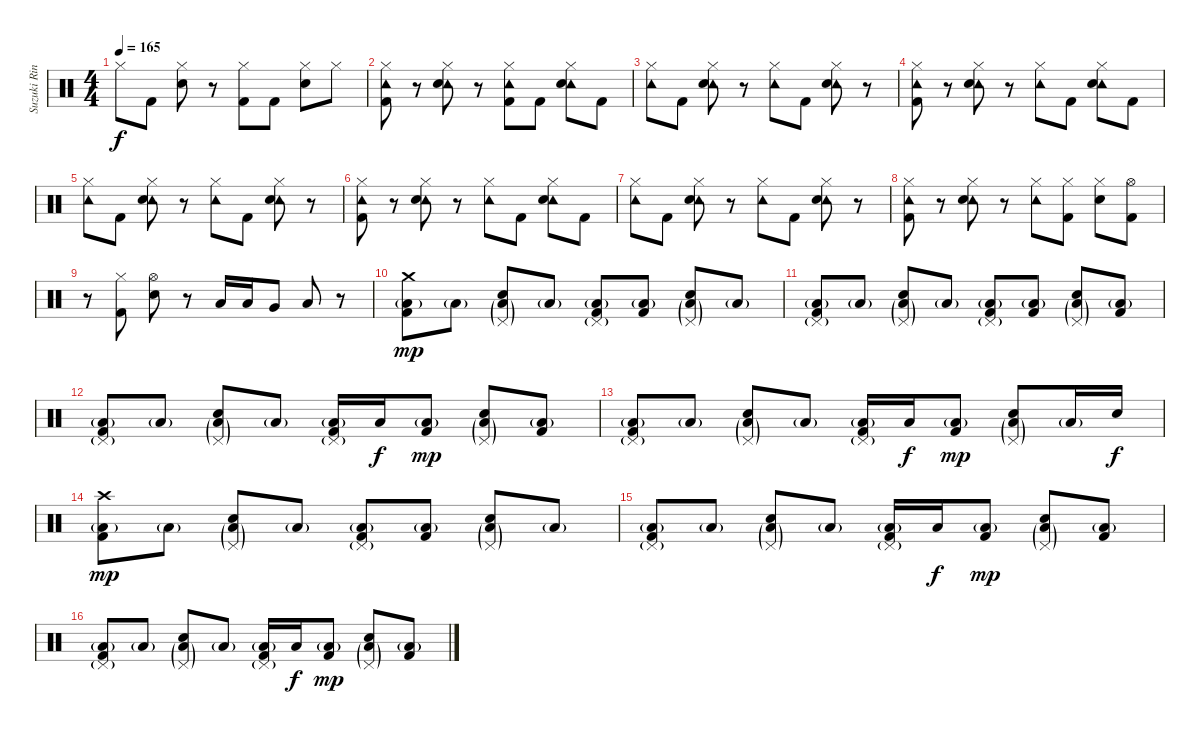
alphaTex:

\track ("Suzuki Rina" "Suzuki Rin") {instrument percussion}
\staff {score}
\articulation defaults
\ts (4 4)
\tempo 165
\clef neutral
\ks c "Hi-Hat (closed)".8{dy f} "Kick (hit) 2".8
("Hi-Hat (closed)" "Electric Snare (hit)").8 r.8 ("Hi-Hat (closed)" "Kick (hit) 2").8 "Kick (hit) 2".8 ("Hi-Hat (closed)" "Electric Snare (hit)").8 "Hi-Hat (closed)".8 |
("Tambourine (hit)" "Hi-Hat (closed)" "Kick (hit) 2").8 r.8 ("Tambourine (hit)" "Hi-Hat (closed)" "Electric Snare (hit)").8 r.8 ("Tambourine (hit)" "Hi-Hat (closed)" "Kick (hit) 2").8 "Kick (hit) 2".8 ("Tambourine (hit)" "Hi-Hat (closed)" "Electric Snare (hit)").8 "Kick (hit) 2".8 |
("Tambourine (hit)" "Hi-Hat (closed)").8 "Kick (hit) 2".8 ("Tambourine (hit)" "Hi-Hat (closed)" "Electric Snare (hit)").8 r.8 ("Tambourine (hit)" "Hi-Hat (closed)").8 "Kick (hit) 2".8 ("Tambourine (hit)" "Hi-Hat (closed)" "Electric Snare (hit)").8 r.8 |
("Tambourine (hit)" "Hi-Hat (closed)" "Kick (hit) 2").8 r.8 ("Tambourine (hit)" "Hi-Hat (closed)" "Electric Snare (hit)").8 r.8 ("Tambourine (hit)" "Hi-Hat (closed)").8 "Kick (hit) 2".8 ("Tambourine (hit)" "Hi-Hat (closed)" "Electric Snare (hit)").8 "Kick (hit) 2".8 |
("Tambourine (hit)" "Hi-Hat (closed)").8 "Kick (hit) 2".8 ("Tambourine (hit)" "Hi-Hat (closed)" "Electric Snare (hit)").8 r.8 ("Tambourine (hit)" "Hi-Hat (closed)").8 "Kick (hit) 2".8 ("Tambourine (hit)" "Hi-Hat (closed)" "Electric Snare (hit)").8 r.8 |
("Tambourine (hit)" "Hi-Hat (closed)" "Kick (hit) 2").8 r.8 ("Tambourine (hit)" "Hi-Hat (closed)" "Electric Snare (hit)").8 r.8 ("Tambourine (hit)" "Hi-Hat (closed)").8 "Kick (hit) 2".8 ("Tambourine (hit)" "Hi-Hat (closed)" "Electric Snare (hit)").8 "Kick (hit) 2".8 |
("Tambourine (hit)" "Hi-Hat (closed)").8 "Kick (hit) 2".8 ("Tambourine (hit)" "Hi-Hat (closed)" "Electric Snare (hit)").8 r.8 ("Tambourine (hit)" "Hi-Hat (closed)").8 "Kick (hit) 2".8 ("Tambourine (hit)" "Hi-Hat (closed)" "Electric Snare (hit)").8 r.8 |
("Tambourine (hit)" "Hi-Hat (closed)" "Kick (hit) 2").8 r.8 ("Tambourine (hit)" "Hi-Hat (closed)" "Electric Snare (hit)").8 r.8 ("Tambourine (hit)" "Hi-Hat (closed)").8 ("Hi-Hat (closed)" "Kick (hit) 2").8 ("Hi-Hat (closed)" "Electric Snare (hit)").8 ("Hi-Hat (open)" "Kick (hit) 2").8 |
r.8 ("Hi-Hat (closed)" "Kick (hit) 2").8 ("Hi-Hat (open)" "Electric Snare (hit)").8 r.8 "Low Tom (hit)".16 "Low Tom (hit)".16 "Very Low Tom (hit)".8 "Low Floor Tom (hit)".8 r.8 |
("Crash medium (hit)" "Low Floor Tom (hit)"{g} "Kick (hit) 2").8{dy mp} "Low Floor Tom (hit)"{g}.8 ("Pedal Hi-Hat (hit)"{g} "Electric Snare (hit)" "Low Floor Tom (hit)"{g}).8 "Low Floor Tom (hit)"{g}.8 ("Pedal Hi-Hat (hit)"{g} "Low Floor Tom (hit)"{g} "Kick (hit) 2").8 ("Low Floor Tom (hit)"{g} "Kick (hit) 2").8 ("Pedal Hi-Hat (hit)"{g} "Electric Snare (hit)" "Low Floor Tom (hit)"{g}).8 "Low Floor Tom (hit)"{g}.8 |
("Pedal Hi-Hat (hit)"{g} "Low Floor Tom (hit)"{g} "Kick (hit) 2").8 "Low Floor Tom (hit)"{g}.8 ("Pedal Hi-Hat (hit)"{g} "Electric Snare (hit)" "Low Floor Tom (hit)"{g}).8 "Low Floor Tom (hit)"{g}.8 ("Pedal Hi-Hat (hit)"{g} "Low Floor Tom (hit)"{g} "Kick (hit) 2").8 ("Low Floor Tom (hit)"{g} "Kick (hit) 2").8 ("Pedal Hi-Hat (hit)"{g} "Electric Snare (hit)" "Low Floor Tom (hit)"{g}).8 ("Low Floor Tom (hit)"{g} "Kick (hit) 2").8 |
("Pedal Hi-Hat (hit)"{g} "Low Floor Tom (hit)"{g} "Kick (hit) 2").8 "Low Floor Tom (hit)"{g}.8 ("Pedal Hi-Hat (hit)"{g} "Electric Snare (hit)" "Low Floor Tom (hit)"{g}).8 "Low Floor Tom (hit)"{g}.8 ("Pedal Hi-Hat (hit)"{g} "Low Floor Tom (hit)"{g} "Kick (hit) 2").16 "Low Tom (hit)".16{dy f} ("Low Floor Tom (hit)"{g} "Kick (hit) 2").8{dy mp} ("Pedal Hi-Hat (hit)"{g} "Electric Snare (hit)" "Low Floor Tom (hit)"{g}).8 ("Low Floor Tom (hit)"{g} "Kick (hit) 2").8 |
("Pedal Hi-Hat (hit)"{g} "Low Floor Tom (hit)"{g} "Kick (hit) 2").8 "Low Floor Tom (hit)"{g}.8 ("Pedal Hi-Hat (hit)"{g} "Electric Snare (hit)" "Low Floor Tom (hit)"{g}).8 "Low Floor Tom (hit)"{g}.8 ("Pedal Hi-Hat (hit)"{g} "Low Floor Tom (hit)"{g} "Kick (hit) 2").16 "Low Tom (hit)".16{dy f} ("Low Floor Tom (hit)"{g} "Kick (hit) 2").8{dy mp} ("Pedal Hi-Hat (hit)"{g} "Electric Snare (hit)" "Low Floor Tom (hit)"{g}).8 "Low Floor Tom (hit)"{g}.16 "Electric Snare (hit)".16{dy f} |
("Crash high (hit)" "Low Floor Tom (hit)"{g} "Kick (hit) 2").8{dy mp} "Low Floor Tom (hit)"{g}.8 ("Pedal Hi-Hat (hit)"{g} "Electric Snare (hit)" "Low Floor Tom (hit)"{g}).8 "Low Floor Tom (hit)"{g}.8 ("Pedal Hi-Hat (hit)"{g} "Low Floor Tom (hit)"{g} "Kick (hit) 2").8 ("Low Floor Tom (hit)"{g} "Kick (hit) 2").8 ("Pedal Hi-Hat (hit)"{g} "Electric Snare (hit)" "Low Floor Tom (hit)"{g}).8 "Low Floor Tom (hit)"{g}.8 |
("Pedal Hi-Hat (hit)"{g} "Low Floor Tom (hit)"{g} "Kick (hit) 2").8 "Low Floor Tom (hit)"{g}.8 ("Pedal Hi-Hat (hit)"{g} "Electric Snare (hit)" "Low Floor Tom (hit)"{g}).8 "Low Floor Tom (hit)"{g}.8 ("Pedal Hi-Hat (hit)"{g} "Low Floor Tom (hit)"{g} "Kick (hit) 2").16 "Low Tom (hit)".16{dy f} ("Low Floor Tom (hit)"{g} "Kick (hit) 2").8{dy mp} ("Pedal Hi-Hat (hit)"{g} "Electric Snare (hit)" "Low Floor Tom (hit)"{g}).8 ("Low Floor Tom (hit)"{g} "Kick (hit) 2").8 |
("Pedal Hi-Hat (hit)"{g} "Low Floor Tom (hit)"{g} "Kick (hit) 2").8 "Low Floor Tom (hit)"{g}.8 ("Pedal Hi-Hat (hit)"{g} "Electric Snare (hit)" "Low Floor Tom (hit)"{g}).8 "Low Floor Tom (hit)"{g}.8 ("Pedal Hi-Hat (hit)"{g} "Low Floor Tom (hit)"{g} "Kick (hit) 2").16 "Low Tom (hit)".16{dy f} ("Low Floor Tom (hit)"{g} "Kick (hit) 2").8{dy mp} ("Pedal Hi-Hat (hit)"{g} "Electric Snare (hit)" "Low Floor Tom (hit)"{g}).8 ("Low Floor Tom (hit)"{g} "Kick (hit) 2").8
